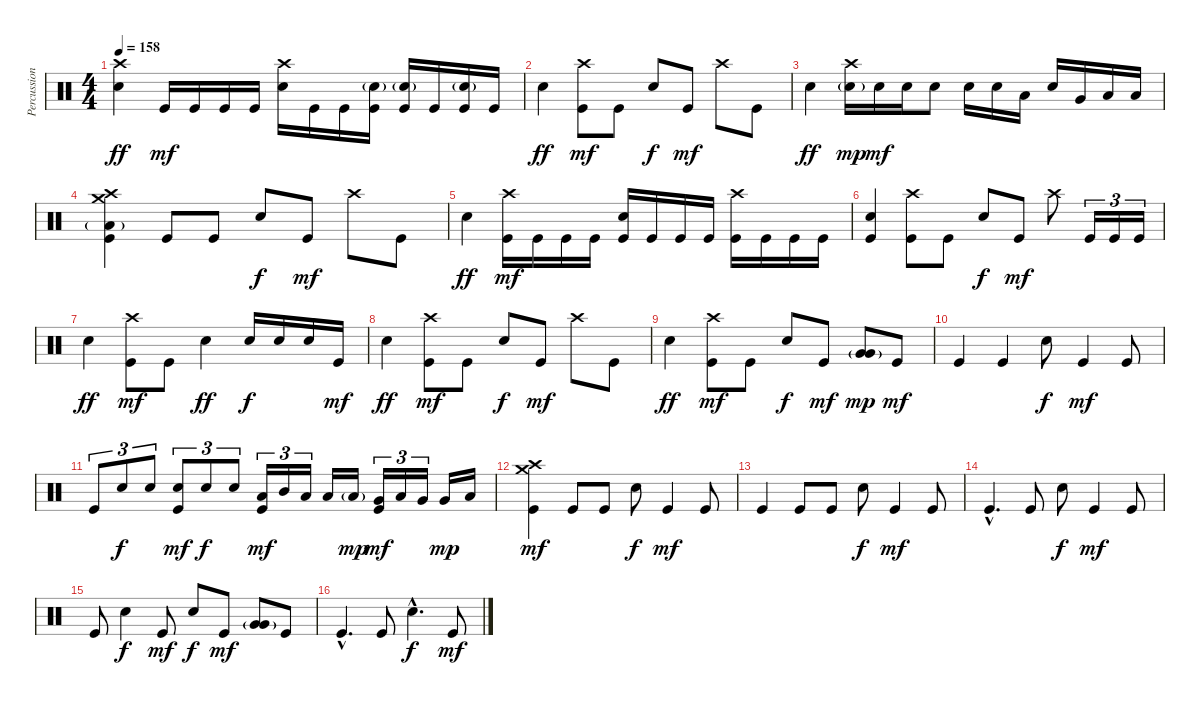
\track ("Percussion" "Percussion") {instrument percussion}
\staff {score}
\articulation defaults
\ts (4 4)
\tempo 158
\clef neutral
\ks c
("Crash high (hit)" "Electric Snare (hit)").4{dy ff} "Kick (hit)".16{dy mf} "Kick (hit)".16 "Kick (hit)".16 "Kick (hit)".16 ("Crash high (hit)" "Electric Snare (hit)").16 "Kick (hit)".16 "Kick (hit)".16 ("Electric Snare (hit)"{g} "Kick (hit)").16 ("Electric Snare (hit)"{g} "Kick (hit)").16 "Kick (hit)".16 ("Electric Snare (hit)"{g} "Kick (hit)").16 "Kick (hit)".16 |
"Electric Snare (hit)".4{dy ff} ("Crash high (hit)" "Kick (hit)").8{dy mf} "Kick (hit)".8 "Electric Snare (hit)".8{dy f} "Kick (hit)".8{dy mf} "Crash high (hit)".8 "Kick (hit)".8 |
"Electric Snare (hit)".4{dy ff} ("Crash high (hit)" "Electric Snare (hit)"{g}).16{dy mp} "Electric Snare (hit)".16{dy mf} "Electric Snare (hit)".16 "Electric Snare (hit)".8 "Electric Snare (hit)".16 "Electric Snare (hit)".16 "Low Tom (hit)".16 "Electric Snare (hit)".16 "Very Low Tom (hit)".16 "Low Tom (hit)".16 "Low Floor Tom (hit)".16 |
("Crash high (hit)" "Crash medium (hit)" "Low Floor Tom (hit)"{g} "Kick (hit)").4 "Kick (hit)".8 "Kick (hit)".8 "Electric Snare (hit)".8{dy f} "Kick (hit)".8{dy mf} "Crash high (hit)".8 "Kick (hit)".8 |
"Electric Snare (hit)".4{dy ff} ("Crash high (hit)" "Kick (hit)").16{dy mf} "Kick (hit)".16 "Kick (hit)".16 "Kick (hit)".16 ("Electric Snare (hit)" "Kick (hit)").16 "Kick (hit)".16 "Kick (hit)".16 "Kick (hit)".16 ("Crash high (hit)" "Kick (hit)").16 "Kick (hit)".16 "Kick (hit)".16 "Kick (hit)".16 |
("Electric Snare (hit)" "Kick (hit)").4 ("Crash high (hit)" "Kick (hit)").8 "Kick (hit)".8 "Electric Snare (hit)".8{dy f} "Kick (hit)".8{dy mf} "Crash high (hit)".8 "Kick (hit)".16{tu (3 2)} "Kick (hit)".16{tu (3 2)} "Kick (hit)".16{tu (3 2)} |
"Electric Snare (hit)".4{dy ff} ("Crash high (hit)" "Kick (hit)").8{dy mf} "Kick (hit)".8 "Electric Snare (hit)".4{dy ff} "Electric Snare (hit)".16{dy f} "Electric Snare (hit)".16 "Electric Snare (hit)".16 "Kick (hit)".16{dy mf} |
"Electric Snare (hit)".4{dy ff} ("Crash high (hit)" "Kick (hit)").8{dy mf} "Kick (hit)".8 "Electric Snare (hit)".8{dy f} "Kick (hit)".8{dy mf} "Crash high (hit)".8 "Kick (hit)".8 |
"Electric Snare (hit)".4{dy ff} ("Crash high (hit)" "Kick (hit)").8{dy mf} "Kick (hit)".8 "Electric Snare (hit)".8{dy f} "Kick (hit)".8{dy mf} ("Very Low Tom (hit)"{g} "Very Low Tom (hit)").8{dy mp} "Kick (hit)".8{dy mf} |
"Kick (hit)".4 "Kick (hit)".4 "Electric Snare (hit)".8{dy f} "Kick (hit)".4{dy mf} "Kick (hit)".8 |
"Kick (hit)".8{tu (3 2)} "Electric Snare (hit)".8{tu (3 2) dy f} "Electric Snare (hit)".8{tu (3 2)} ("Electric Snare (hit)" "Kick (hit)").8{tu (3 2) dy mf} "Electric Snare (hit)".8{tu (3 2) dy f} "Electric Snare (hit)".8{tu (3 2)} ("Low Tom (hit)" "Kick (hit)").16{tu (3 2) dy mf} "Mid Tom (hit)".16{tu (3 2)} "Low Tom (hit)".16{tu (3 2)} "Low Tom (hit)".16 "Low Tom (hit)"{g}.16{dy mp} ("Very Low Tom (hit)" "Kick (hit)").16{tu (3 2) dy mf} "Low Tom (hit)".16{tu (3 2)} "Very Low Tom (hit)".16{tu (3 2)} "Very Low Tom (hit)".16{dy mp} "Low Floor Tom (hit)".16 |
("Crash medium (hit)" "Crash high (hit)" "Kick (hit)").4{dy mf} "Kick (hit)".8 "Kick (hit)".8 "Electric Snare (hit)".8{dy f} "Kick (hit)".4{dy mf} "Kick (hit)".8 |
"Kick (hit)".4 "Kick (hit)".8 "Kick (hit)".8 "Electric Snare (hit)".8{dy f} "Kick (hit)".4{dy mf} "Kick (hit)".8 |
"Kick (hit)"{hac}.4{d} "Kick (hit)".8 "Electric Snare (hit)".8{dy f} "Kick (hit)".4{dy mf} "Kick (hit)".8 |
"Kick (hit)".8 "Electric Snare (hit)".4{dy f} "Kick (hit)".8{dy mf} "Electric Snare (hit)".8{dy f} "Kick (hit)".8{dy mf} ("Very Low Tom (hit)"{g} "Very Low Tom (hit)").8 "Kick (hit)".8 |
"Kick (hit)"{hac}.4{d} "Kick (hit)".8 "Electric Snare (hit)"{hac}.4{d dy f} "Kick (hit)".8{dy mf}
